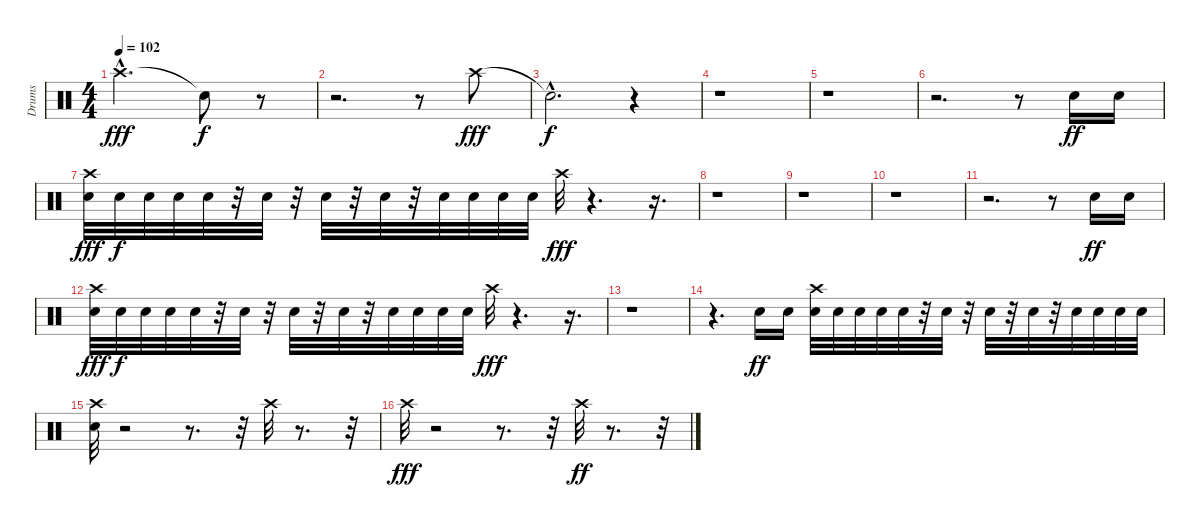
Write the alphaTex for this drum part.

\track ("Drums" "Drums") {instrument percussion}
\staff {score}
\articulation defaults
\ts (4 4)
\tempo 102
\clef neutral
\ks c "Crash high (hit)"{hac}.2{d dy fff} "Snare (hit)"{t}.8{dy f}
r.8 |
r.2{d} r.8 "Crash high (hit)".8{dy fff} |
"Snare (hit)"{hac t}.2{d dy f} r.4 |
r.1 |
r.1 |
r.2{d} r.8 "Electric Snare (hit)".16{dy ff} "Electric Snare (hit)".16 |
("Electric Snare (hit)" "Crash high (hit)").32{dy fff} "Electric Snare (hit)".32{dy f} "Electric Snare (hit)".32 "Electric Snare (hit)".32 "Electric Snare (hit)".32 r.32 "Electric Snare (hit)".32 r.32 "Electric Snare (hit)".32 r.32 "Electric Snare (hit)".32 r.32 "Electric Snare (hit)".32 "Electric Snare (hit)".32 "Electric Snare (hit)".32 "Electric Snare (hit)".32 "Crash high (hit)".32{dy fff} r.4{d} r.16{d} |
r.1 |
r.1 |
r.1 |
r.2{d} r.8 "Electric Snare (hit)".16{dy ff} "Electric Snare (hit)".16 |
("Electric Snare (hit)" "Crash high (hit)").32{dy fff} "Electric Snare (hit)".32{dy f} "Electric Snare (hit)".32 "Electric Snare (hit)".32 "Electric Snare (hit)".32 r.32 "Electric Snare (hit)".32 r.32 "Electric Snare (hit)".32 r.32 "Electric Snare (hit)".32 r.32 "Electric Snare (hit)".32 "Electric Snare (hit)".32 "Electric Snare (hit)".32 "Electric Snare (hit)".32 "Crash high (hit)".32{dy fff} r.4{d} r.16{d} |
r.1 |
r.4{d} "Electric Snare (hit)".16{dy ff} "Electric Snare (hit)".16 ("Crash high (hit)" "Electric Snare (hit)").32 "Electric Snare (hit)".32 "Electric Snare (hit)".32 "Electric Snare (hit)".32 "Electric Snare (hit)".32 r.32 "Electric Snare (hit)".32 r.32 "Electric Snare (hit)".32 r.32 "Electric Snare (hit)".32 r.32 "Electric Snare (hit)".32 "Electric Snare (hit)".32 "Electric Snare (hit)".32 "Electric Snare (hit)".32 |
("Crash high (hit)" "Electric Snare (hit)").32 r.2 r.8{d} r.32 "Crash high (hit)".32 r.8{d} r.32 |
"Crash high (hit)".32{dy fff} r.2 r.8{d} r.32 "Crash high (hit)".32{dy ff} r.8{d} r.32
